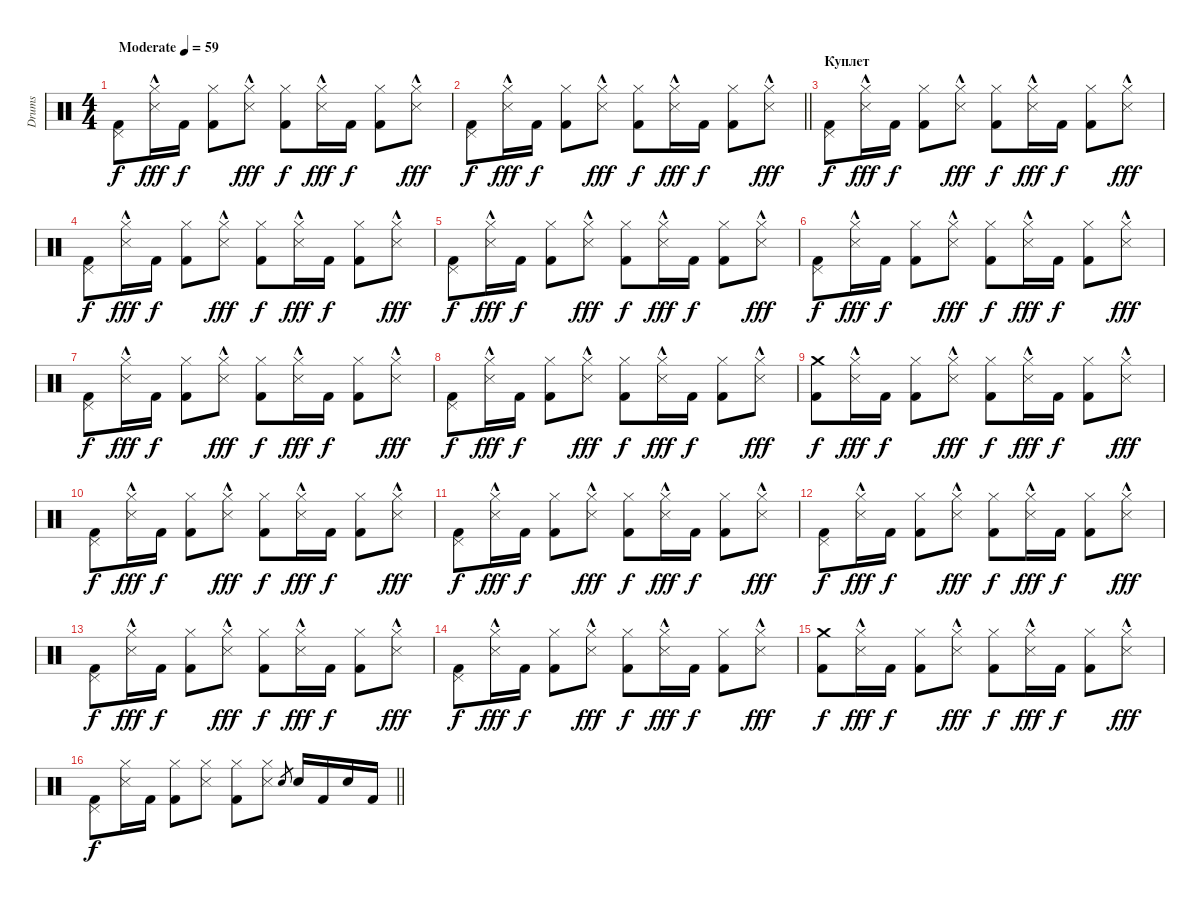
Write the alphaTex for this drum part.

\track ("Drums" "Drums") {instrument percussion}
\staff {score}
\articulation defaults
\ts (4 4)
\tempo (59 "Moderate")
\clef neutral
\ks c
("Kick (hit) 2" "Pedal Hi-Hat (hit)").8{dy f} ("Snare (side stick) 3"{hac} "Hi-Hat (closed)").16{dy fff} "Kick (hit) 2".16{dy f} ("Kick (hit) 2" "Hi-Hat (closed)").8 ("Snare (side stick) 3"{hac} "Hi-Hat (closed)").8{dy fff} ("Kick (hit) 2" "Hi-Hat (closed)").8{dy f} ("Snare (side stick) 3"{hac} "Hi-Hat (closed)").16{dy fff} "Kick (hit) 2".16{dy f} ("Kick (hit) 2" "Hi-Hat (closed)").8 ("Snare (side stick) 3"{hac} "Hi-Hat (closed)").8{dy fff} |
\barLineRight lightlight
("Kick (hit) 2" "Pedal Hi-Hat (hit)").8{dy f} ("Snare (side stick) 3"{hac} "Hi-Hat (closed)").16{dy fff} "Kick (hit) 2".16{dy f} ("Kick (hit) 2" "Hi-Hat (closed)").8 ("Snare (side stick) 3"{hac} "Hi-Hat (closed)").8{dy fff} ("Kick (hit) 2" "Hi-Hat (closed)").8{dy f} ("Snare (side stick) 3"{hac} "Hi-Hat (closed)").16{dy fff} "Kick (hit) 2".16{dy f} ("Kick (hit) 2" "Hi-Hat (closed)").8 ("Snare (side stick) 3"{hac} "Hi-Hat (closed)").8{dy fff} |
\section ("" "Куплет")
("Kick (hit) 2" "Pedal Hi-Hat (hit)").8{dy f} ("Snare (side stick) 3"{hac} "Hi-Hat (closed)").16{dy fff} "Kick (hit) 2".16{dy f} ("Kick (hit) 2" "Hi-Hat (closed)").8 ("Snare (side stick) 3"{hac} "Hi-Hat (closed)").8{dy fff} ("Kick (hit) 2" "Hi-Hat (closed)").8{dy f} ("Snare (side stick) 3"{hac} "Hi-Hat (closed)").16{dy fff} "Kick (hit) 2".16{dy f} ("Kick (hit) 2" "Hi-Hat (closed)").8 ("Snare (side stick) 3"{hac} "Hi-Hat (closed)").8{dy fff} |
("Kick (hit) 2" "Pedal Hi-Hat (hit)").8{dy f} ("Snare (side stick) 3"{hac} "Hi-Hat (closed)").16{dy fff} "Kick (hit) 2".16{dy f} ("Kick (hit) 2" "Hi-Hat (closed)").8 ("Snare (side stick) 3"{hac} "Hi-Hat (closed)").8{dy fff} ("Kick (hit) 2" "Hi-Hat (closed)").8{dy f} ("Snare (side stick) 3"{hac} "Hi-Hat (closed)").16{dy fff} "Kick (hit) 2".16{dy f} ("Kick (hit) 2" "Hi-Hat (closed)").8 ("Snare (side stick) 3"{hac} "Hi-Hat (closed)").8{dy fff} |
("Kick (hit) 2" "Pedal Hi-Hat (hit)").8{dy f} ("Snare (side stick) 3"{hac} "Hi-Hat (closed)").16{dy fff} "Kick (hit) 2".16{dy f} ("Kick (hit) 2" "Hi-Hat (closed)").8 ("Snare (side stick) 3"{hac} "Hi-Hat (closed)").8{dy fff} ("Kick (hit) 2" "Hi-Hat (closed)").8{dy f} ("Snare (side stick) 3"{hac} "Hi-Hat (closed)").16{dy fff} "Kick (hit) 2".16{dy f} ("Kick (hit) 2" "Hi-Hat (closed)").8 ("Snare (side stick) 3"{hac} "Hi-Hat (closed)").8{dy fff} |
("Kick (hit) 2" "Pedal Hi-Hat (hit)").8{dy f} ("Snare (side stick) 3"{hac} "Hi-Hat (closed)").16{dy fff} "Kick (hit) 2".16{dy f} ("Kick (hit) 2" "Hi-Hat (closed)").8 ("Snare (side stick) 3"{hac} "Hi-Hat (closed)").8{dy fff} ("Kick (hit) 2" "Hi-Hat (closed)").8{dy f} ("Snare (side stick) 3"{hac} "Hi-Hat (closed)").16{dy fff} "Kick (hit) 2".16{dy f} ("Kick (hit) 2" "Hi-Hat (closed)").8 ("Snare (side stick) 3"{hac} "Hi-Hat (closed)").8{dy fff} |
("Kick (hit) 2" "Pedal Hi-Hat (hit)").8{dy f} ("Snare (side stick) 3"{hac} "Hi-Hat (closed)").16{dy fff} "Kick (hit) 2".16{dy f} ("Kick (hit) 2" "Hi-Hat (closed)").8 ("Snare (side stick) 3"{hac} "Hi-Hat (closed)").8{dy fff} ("Kick (hit) 2" "Hi-Hat (closed)").8{dy f} ("Snare (side stick) 3"{hac} "Hi-Hat (closed)").16{dy fff} "Kick (hit) 2".16{dy f} ("Kick (hit) 2" "Hi-Hat (closed)").8 ("Snare (side stick) 3"{hac} "Hi-Hat (closed)").8{dy fff} |
("Kick (hit) 2" "Pedal Hi-Hat (hit)").8{dy f} ("Snare (side stick) 3"{hac} "Hi-Hat (closed)").16{dy fff} "Kick (hit) 2".16{dy f} ("Kick (hit) 2" "Hi-Hat (closed)").8 ("Snare (side stick) 3"{hac} "Hi-Hat (closed)").8{dy fff} ("Kick (hit) 2" "Hi-Hat (closed)").8{dy f} ("Snare (side stick) 3"{hac} "Hi-Hat (closed)").16{dy fff} "Kick (hit) 2".16{dy f} ("Kick (hit) 2" "Hi-Hat (closed)").8 ("Snare (side stick) 3"{hac} "Hi-Hat (closed)").8{dy fff} |
("Kick (hit) 2" "Crash medium (hit)").8{dy f} ("Snare (side stick) 3"{hac} "Hi-Hat (closed)").16{dy fff} "Kick (hit) 2".16{dy f} ("Kick (hit) 2" "Hi-Hat (closed)").8 ("Snare (side stick) 3"{hac} "Hi-Hat (closed)").8{dy fff} ("Kick (hit) 2" "Hi-Hat (closed)").8{dy f} ("Snare (side stick) 3"{hac} "Hi-Hat (closed)").16{dy fff} "Kick (hit) 2".16{dy f} ("Kick (hit) 2" "Hi-Hat (closed)").8 ("Snare (side stick) 3"{hac} "Hi-Hat (closed)").8{dy fff} |
("Kick (hit) 2" "Pedal Hi-Hat (hit)").8{dy f} ("Snare (side stick) 3"{hac} "Hi-Hat (closed)").16{dy fff} "Kick (hit) 2".16{dy f} ("Kick (hit) 2" "Hi-Hat (closed)").8 ("Snare (side stick) 3"{hac} "Hi-Hat (closed)").8{dy fff} ("Kick (hit) 2" "Hi-Hat (closed)").8{dy f} ("Snare (side stick) 3"{hac} "Hi-Hat (closed)").16{dy fff} "Kick (hit) 2".16{dy f} ("Kick (hit) 2" "Hi-Hat (closed)").8 ("Snare (side stick) 3"{hac} "Hi-Hat (closed)").8{dy fff} |
("Kick (hit) 2" "Pedal Hi-Hat (hit)").8{dy f} ("Snare (side stick) 3"{hac} "Hi-Hat (closed)").16{dy fff} "Kick (hit) 2".16{dy f} ("Kick (hit) 2" "Hi-Hat (closed)").8 ("Snare (side stick) 3"{hac} "Hi-Hat (closed)").8{dy fff} ("Kick (hit) 2" "Hi-Hat (closed)").8{dy f} ("Snare (side stick) 3"{hac} "Hi-Hat (closed)").16{dy fff} "Kick (hit) 2".16{dy f} ("Kick (hit) 2" "Hi-Hat (closed)").8 ("Snare (side stick) 3"{hac} "Hi-Hat (closed)").8{dy fff} |
("Kick (hit) 2" "Pedal Hi-Hat (hit)").8{dy f} ("Snare (side stick) 3"{hac} "Hi-Hat (closed)").16{dy fff} "Kick (hit) 2".16{dy f} ("Kick (hit) 2" "Hi-Hat (closed)").8 ("Snare (side stick) 3"{hac} "Hi-Hat (closed)").8{dy fff} ("Kick (hit) 2" "Hi-Hat (closed)").8{dy f} ("Snare (side stick) 3"{hac} "Hi-Hat (closed)").16{dy fff} "Kick (hit) 2".16{dy f} ("Kick (hit) 2" "Hi-Hat (closed)").8 ("Snare (side stick) 3"{hac} "Hi-Hat (closed)").8{dy fff} |
("Kick (hit) 2" "Pedal Hi-Hat (hit)").8{dy f} ("Snare (side stick) 3"{hac} "Hi-Hat (closed)").16{dy fff} "Kick (hit) 2".16{dy f} ("Kick (hit) 2" "Hi-Hat (closed)").8 ("Snare (side stick) 3"{hac} "Hi-Hat (closed)").8{dy fff} ("Kick (hit) 2" "Hi-Hat (closed)").8{dy f} ("Snare (side stick) 3"{hac} "Hi-Hat (closed)").16{dy fff} "Kick (hit) 2".16{dy f} ("Kick (hit) 2" "Hi-Hat (closed)").8 ("Snare (side stick) 3"{hac} "Hi-Hat (closed)").8{dy fff} |
("Kick (hit) 2" "Pedal Hi-Hat (hit)").8{dy f} ("Snare (side stick) 3"{hac} "Hi-Hat (closed)").16{dy fff} "Kick (hit) 2".16{dy f} ("Kick (hit) 2" "Hi-Hat (closed)").8 ("Snare (side stick) 3"{hac} "Hi-Hat (closed)").8{dy fff} ("Kick (hit) 2" "Hi-Hat (closed)").8{dy f} ("Snare (side stick) 3"{hac} "Hi-Hat (closed)").16{dy fff} "Kick (hit) 2".16{dy f} ("Kick (hit) 2" "Hi-Hat (closed)").8 ("Snare (side stick) 3"{hac} "Hi-Hat (closed)").8{dy fff} |
("Kick (hit) 2" "Crash medium (hit)").8{dy f} ("Snare (side stick) 3"{hac} "Hi-Hat (closed)").16{dy fff} "Kick (hit) 2".16{dy f} ("Kick (hit) 2" "Hi-Hat (closed)").8 ("Snare (side stick) 3"{hac} "Hi-Hat (closed)").8{dy fff} ("Kick (hit) 2" "Hi-Hat (closed)").8{dy f} ("Snare (side stick) 3"{hac} "Hi-Hat (closed)").16{dy fff} "Kick (hit) 2".16{dy f} ("Kick (hit) 2" "Hi-Hat (closed)").8 ("Snare (side stick) 3"{hac} "Hi-Hat (closed)").8{dy fff} |
\barLineRight lightlight
("Kick (hit) 2" "Pedal Hi-Hat (hit)").8{dy f} ("Snare (side stick) 3" "Hi-Hat (closed)").16 "Kick (hit) 2".16 ("Kick (hit) 2" "Hi-Hat (closed)").8 ("Snare (side stick) 3" "Hi-Hat (closed)").8 ("Kick (hit) 2" "Hi-Hat (closed)").8 ("Snare (side stick) 3" "Hi-Hat (closed)").8 "Electric Snare (hit)".8{gr} "Snare (hit) 2".16 "Kick (hit) 2".16 "Snare (hit) 2".16 "Kick (hit) 2".16
